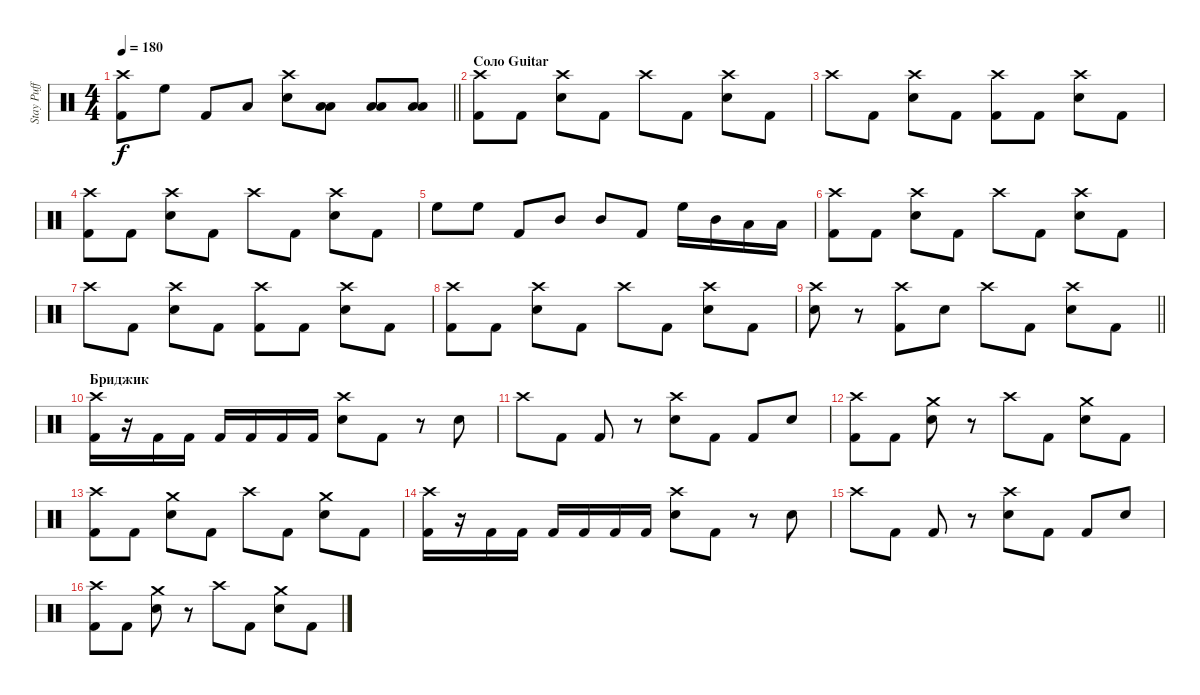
\track ("Stay Puff" "Stay Puff") {instrument percussion}
\staff {score}
\articulation defaults
\ts (4 4)
\tempo 180
\clef neutral
\barLineRight lightlight
\ks c
("Crash high (hit)" "Kick (hit) 2").8{dy f} "High Floor Tom (hit)".8 "Kick (hit) 2".8 "Low Tom (hit)".8 ("Crash high (hit)" "Snare (hit) 2").8 ("Low Tom (hit)" "Low Floor Tom (hit)").8 ("Low Tom (hit)" "Low Floor Tom (hit)").8 ("Low Tom (hit)" "Low Floor Tom (hit)").8 |
\section ("" "Соло Guitar")
("Crash high (hit)" "Kick (hit) 2").8 "Kick (hit) 2".8 ("Crash high (hit)" "Snare (hit) 2").8 "Kick (hit) 2".8 "Crash high (hit)".8 "Kick (hit) 2".8 ("Crash high (hit)" "Snare (hit) 2").8 "Kick (hit) 2".8 |
"Crash high (hit)".8 "Kick (hit) 2".8 ("Crash high (hit)" "Snare (hit) 2").8 "Kick (hit) 2".8 ("Crash high (hit)" "Kick (hit) 2").8 "Kick (hit) 2".8 ("Crash high (hit)" "Snare (hit) 2").8 "Kick (hit) 2".8 |
("Crash high (hit)" "Kick (hit) 2").8 "Kick (hit) 2".8 ("Crash high (hit)" "Snare (hit) 2").8 "Kick (hit) 2".8 "Crash high (hit)".8 "Kick (hit) 2".8 ("Crash high (hit)" "Snare (hit) 2").8 "Kick (hit) 2".8 |
"High Floor Tom (hit)".8 "High Floor Tom (hit)".8 "Kick (hit) 2".8 "Mid Tom (hit)".8 "Mid Tom (hit)".8 "Kick (hit) 2".8 "High Floor Tom (hit)".16 "Mid Tom (hit)".16 "Low Tom (hit)".16 "Low Floor Tom (hit)".16 |
("Crash high (hit)" "Kick (hit) 2").8 "Kick (hit) 2".8 ("Crash high (hit)" "Snare (hit) 2").8 "Kick (hit) 2".8 "Crash high (hit)".8 "Kick (hit) 2".8 ("Crash high (hit)" "Snare (hit) 2").8 "Kick (hit) 2".8 |
"Crash high (hit)".8 "Kick (hit) 2".8 ("Crash high (hit)" "Snare (hit) 2").8 "Kick (hit) 2".8 ("Crash high (hit)" "Kick (hit) 2").8 "Kick (hit) 2".8 ("Crash high (hit)" "Snare (hit) 2").8 "Kick (hit) 2".8 |
("Crash high (hit)" "Kick (hit) 2").8 "Kick (hit) 2".8 ("Crash high (hit)" "Snare (hit) 2").8 "Kick (hit) 2".8 "Crash high (hit)".8 "Kick (hit) 2".8 ("Crash high (hit)" "Snare (hit) 2").8 "Kick (hit) 2".8 |
\barLineRight lightlight
("Crash high (hit)" "Snare (hit) 2").8 r.8 ("Crash high (hit)" "Kick (hit) 2").8 "Snare (hit) 2".8 "Crash high (hit)".8 "Kick (hit) 2".8 ("Crash high (hit)" "Snare (hit) 2").8 "Kick (hit) 2".8 |
\section ("" "Бриджик")
("Crash high (hit)" "Kick (hit) 2").16 r.16 "Kick (hit) 2".16 "Kick (hit) 2".16 "Kick (hit) 2".16 "Kick (hit) 2".16 "Kick (hit) 2".16 "Kick (hit) 2".16 ("Crash high (hit)" "Snare (hit) 2").8 "Kick (hit) 2".8 r.8 "Snare (hit) 2".8 |
"Crash high (hit)".8 "Kick (hit) 2".8 "Kick (hit) 2".8 r.8 ("Crash high (hit)" "Snare (hit) 2").8 "Kick (hit) 2".8 "Kick (hit) 2".8 "Snare (hit) 2".8 |
("Crash high (hit)" "Kick (hit) 2").8 "Kick (hit) 2".8 ("Crash medium (hit)" "Snare (hit) 2").8 r.8 "Crash high (hit)".8 "Kick (hit) 2".8 ("Crash medium (hit)" "Snare (hit) 2").8 "Kick (hit) 2".8 |
("Crash high (hit)" "Kick (hit) 2").8 "Kick (hit) 2".8 ("Crash medium (hit)" "Snare (hit) 2").8 "Kick (hit) 2".8 "Crash high (hit)".8 "Kick (hit) 2".8 ("Crash medium (hit)" "Snare (hit) 2").8 "Kick (hit) 2".8 |
("Crash high (hit)" "Kick (hit) 2").16 r.16 "Kick (hit) 2".16 "Kick (hit) 2".16 "Kick (hit) 2".16 "Kick (hit) 2".16 "Kick (hit) 2".16 "Kick (hit) 2".16 ("Crash high (hit)" "Snare (hit) 2").8 "Kick (hit) 2".8 r.8 "Snare (hit) 2".8 |
"Crash high (hit)".8 "Kick (hit) 2".8 "Kick (hit) 2".8 r.8 ("Crash high (hit)" "Snare (hit) 2").8 "Kick (hit) 2".8 "Kick (hit) 2".8 "Snare (hit) 2".8 |
("Crash high (hit)" "Kick (hit) 2").8 "Kick (hit) 2".8 ("Crash medium (hit)" "Snare (hit) 2").8 r.8 "Crash high (hit)".8 "Kick (hit) 2".8 ("Crash medium (hit)" "Snare (hit) 2").8 "Kick (hit) 2".8
